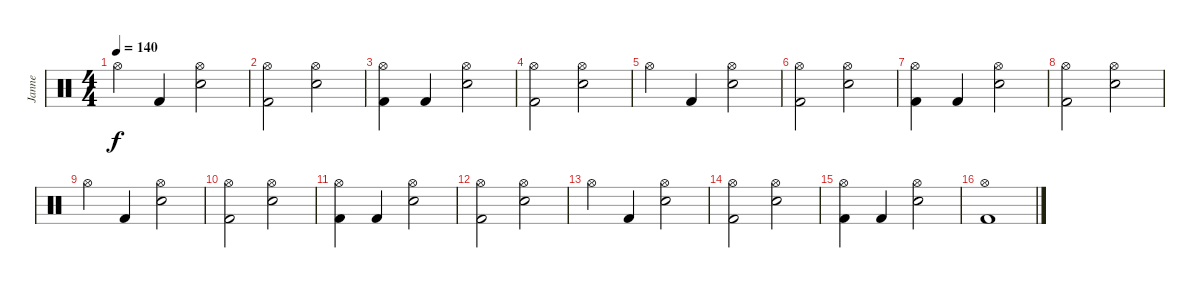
\track ("Janne" "Janne") {instrument percussion}
\staff {score}
\articulation defaults
\ts (4 4)
\tempo 140
\clef neutral
\ks c "Hi-Hat (open)".4{dy f} "Kick (hit) 2".4
("Hi-Hat (open)" "Electric Snare (hit)").2 |
("Hi-Hat (open)" "Kick (hit) 2").2 ("Hi-Hat (open)" "Electric Snare (hit)").2 |
("Hi-Hat (open)" "Kick (hit) 2").4 "Kick (hit) 2".4 ("Hi-Hat (open)" "Electric Snare (hit)").2 |
("Hi-Hat (open)" "Kick (hit) 2").2 ("Hi-Hat (open)" "Electric Snare (hit)").2 |
"Hi-Hat (open)".4 "Kick (hit) 2".4 ("Hi-Hat (open)" "Electric Snare (hit)").2 |
("Hi-Hat (open)" "Kick (hit) 2").2 ("Hi-Hat (open)" "Electric Snare (hit)").2 |
("Hi-Hat (open)" "Kick (hit) 2").4 "Kick (hit) 2".4 ("Hi-Hat (open)" "Electric Snare (hit)").2 |
("Hi-Hat (open)" "Kick (hit) 2").2 ("Hi-Hat (open)" "Electric Snare (hit)").2 |
"Hi-Hat (open)".4 "Kick (hit) 2".4 ("Hi-Hat (open)" "Electric Snare (hit)").2 |
("Hi-Hat (open)" "Kick (hit) 2").2 ("Hi-Hat (open)" "Electric Snare (hit)").2 |
("Hi-Hat (open)" "Kick (hit) 2").4 "Kick (hit) 2".4 ("Hi-Hat (open)" "Electric Snare (hit)").2 |
("Hi-Hat (open)" "Kick (hit) 2").2 ("Hi-Hat (open)" "Electric Snare (hit)").2 |
"Hi-Hat (open)".4 "Kick (hit) 2".4 ("Hi-Hat (open)" "Electric Snare (hit)").2 |
("Hi-Hat (open)" "Kick (hit) 2").2 ("Hi-Hat (open)" "Electric Snare (hit)").2 |
("Hi-Hat (open)" "Kick (hit) 2").4 "Kick (hit) 2".4 ("Hi-Hat (open)" "Electric Snare (hit)").2 |
("Hi-Hat (open)" "Kick (hit) 2").1
